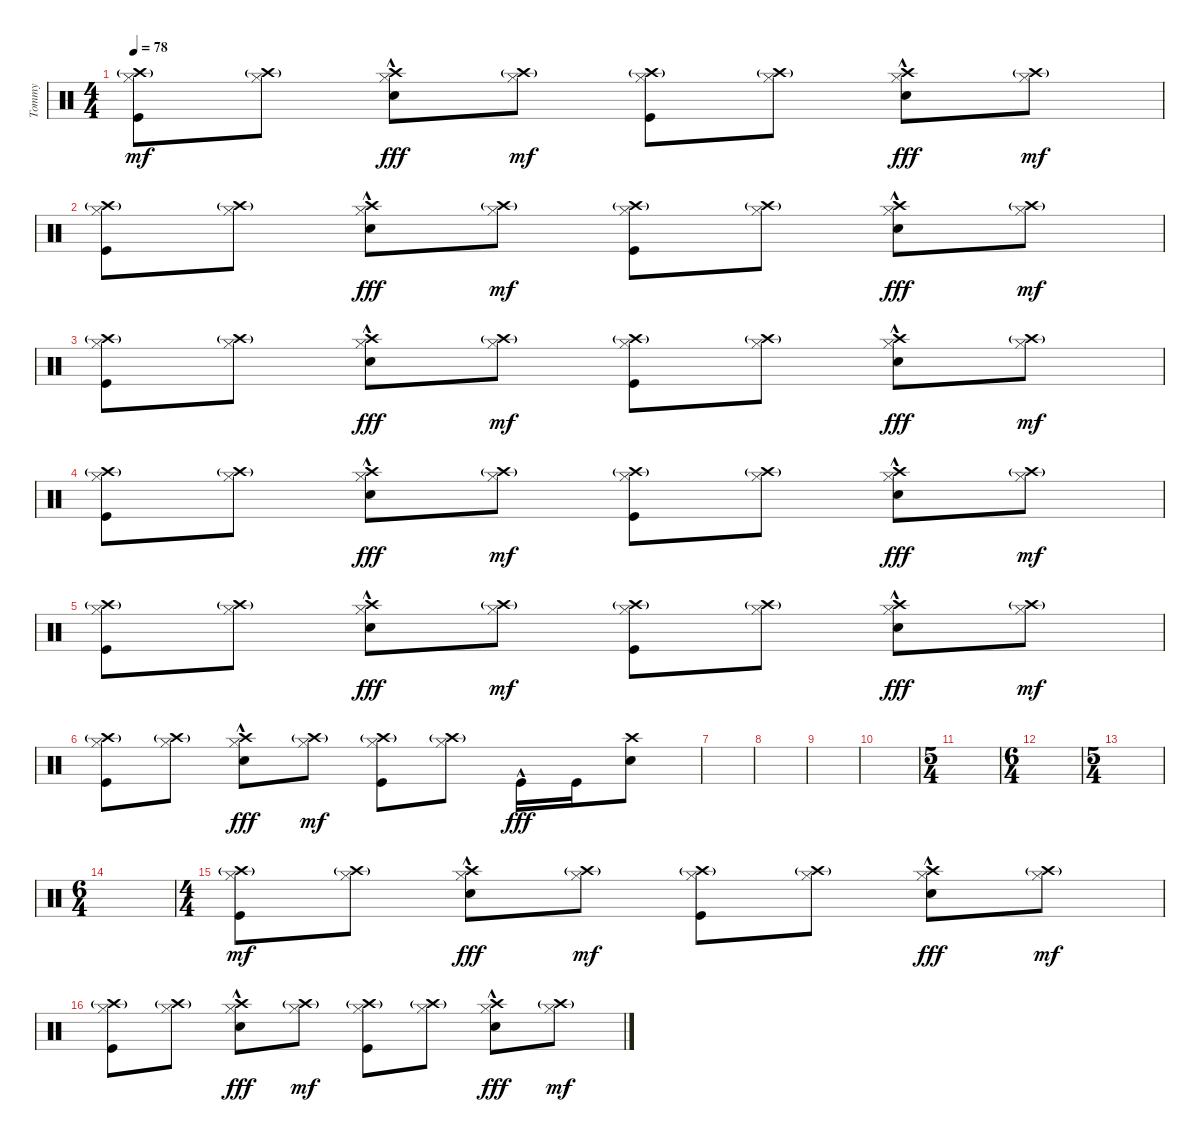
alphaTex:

\track ("Tommy" "Tommy") {instrument percussion}
\staff {score}
\articulation defaults
\ts (4 4)
\tempo 78
\clef neutral
\ks c
("Crash high (hit)"{g} "Hi-Hat (closed)" "Kick (hit)").8{dy mf} ("Crash high (hit)"{g} "Hi-Hat (closed)").8 ("Crash high (hit)" "Hi-Hat (closed)" "Electric Snare (hit)"{hac}).8{dy fff} ("Crash high (hit)"{g} "Hi-Hat (closed)").8{dy mf} ("Crash high (hit)"{g} "Hi-Hat (closed)" "Kick (hit)").8 ("Crash high (hit)"{g} "Hi-Hat (closed)").8 ("Crash high (hit)" "Hi-Hat (closed)" "Electric Snare (hit)"{hac}).8{dy fff} ("Crash high (hit)"{g} "Hi-Hat (closed)").8{dy mf} |
("Crash high (hit)"{g} "Hi-Hat (closed)" "Kick (hit)").8 ("Crash high (hit)"{g} "Hi-Hat (closed)").8 ("Crash high (hit)" "Hi-Hat (closed)" "Electric Snare (hit)"{hac}).8{dy fff} ("Crash high (hit)"{g} "Hi-Hat (closed)").8{dy mf} ("Crash high (hit)"{g} "Hi-Hat (closed)" "Kick (hit)").8 ("Crash high (hit)"{g} "Hi-Hat (closed)").8 ("Crash high (hit)" "Hi-Hat (closed)" "Electric Snare (hit)"{hac}).8{dy fff} ("Crash high (hit)"{g} "Hi-Hat (closed)").8{dy mf} |
("Crash high (hit)"{g} "Hi-Hat (closed)" "Kick (hit)").8 ("Crash high (hit)"{g} "Hi-Hat (closed)").8 ("Crash high (hit)" "Hi-Hat (closed)" "Electric Snare (hit)"{hac}).8{dy fff} ("Crash high (hit)"{g} "Hi-Hat (closed)").8{dy mf} ("Crash high (hit)"{g} "Hi-Hat (closed)" "Kick (hit)").8 ("Crash high (hit)"{g} "Hi-Hat (closed)").8 ("Crash high (hit)" "Hi-Hat (closed)" "Electric Snare (hit)"{hac}).8{dy fff} ("Crash high (hit)"{g} "Hi-Hat (closed)").8{dy mf} |
("Crash high (hit)"{g} "Hi-Hat (closed)" "Kick (hit)").8 ("Crash high (hit)"{g} "Hi-Hat (closed)").8 ("Crash high (hit)" "Hi-Hat (closed)" "Electric Snare (hit)"{hac}).8{dy fff} ("Crash high (hit)"{g} "Hi-Hat (closed)").8{dy mf} ("Crash high (hit)"{g} "Hi-Hat (closed)" "Kick (hit)").8 ("Crash high (hit)"{g} "Hi-Hat (closed)").8 ("Crash high (hit)" "Hi-Hat (closed)" "Electric Snare (hit)"{hac}).8{dy fff} ("Crash high (hit)"{g} "Hi-Hat (closed)").8{dy mf} |
("Crash high (hit)"{g} "Hi-Hat (closed)" "Kick (hit)").8 ("Crash high (hit)"{g} "Hi-Hat (closed)").8 ("Crash high (hit)" "Hi-Hat (closed)" "Electric Snare (hit)"{hac}).8{dy fff} ("Crash high (hit)"{g} "Hi-Hat (closed)").8{dy mf} ("Crash high (hit)"{g} "Hi-Hat (closed)" "Kick (hit)").8 ("Crash high (hit)"{g} "Hi-Hat (closed)").8 ("Crash high (hit)" "Hi-Hat (closed)" "Electric Snare (hit)"{hac}).8{dy fff} ("Crash high (hit)"{g} "Hi-Hat (closed)").8{dy mf} |
("Crash high (hit)"{g} "Hi-Hat (closed)" "Kick (hit)").8 ("Crash high (hit)"{g} "Hi-Hat (closed)").8 ("Crash high (hit)" "Hi-Hat (closed)" "Electric Snare (hit)"{hac}).8{dy fff} ("Crash high (hit)"{g} "Hi-Hat (closed)").8{dy mf} ("Crash high (hit)"{g} "Hi-Hat (closed)" "Kick (hit)").8 ("Crash high (hit)"{g} "Hi-Hat (closed)").8 "Kick (hit)"{hac}.16{dy fff} "Kick (hit)".16 ("Crash high (hit)" "Electric Snare (hit)").8 |
|
|
|
|
\ts (5 4)
|
\ts (6 4)
|
\ts (5 4)
|
\ts (6 4)
|
\ts (4 4)
("Crash high (hit)"{g} "Hi-Hat (closed)" "Kick (hit)").8{dy mf} ("Crash high (hit)"{g} "Hi-Hat (closed)").8 ("Crash high (hit)" "Hi-Hat (closed)" "Electric Snare (hit)"{hac}).8{dy fff} ("Crash high (hit)"{g} "Hi-Hat (closed)").8{dy mf} ("Crash high (hit)"{g} "Hi-Hat (closed)" "Kick (hit)").8 ("Crash high (hit)"{g} "Hi-Hat (closed)").8 ("Crash high (hit)" "Hi-Hat (closed)" "Electric Snare (hit)"{hac}).8{dy fff} ("Crash high (hit)"{g} "Hi-Hat (closed)").8{dy mf} |
("Crash high (hit)"{g} "Hi-Hat (closed)" "Kick (hit)").8 ("Crash high (hit)"{g} "Hi-Hat (closed)").8 ("Crash high (hit)" "Hi-Hat (closed)" "Electric Snare (hit)"{hac}).8{dy fff} ("Crash high (hit)"{g} "Hi-Hat (closed)").8{dy mf} ("Crash high (hit)"{g} "Hi-Hat (closed)" "Kick (hit)").8 ("Crash high (hit)"{g} "Hi-Hat (closed)").8 ("Crash high (hit)" "Hi-Hat (closed)" "Electric Snare (hit)"{hac}).8{dy fff} ("Crash high (hit)"{g} "Hi-Hat (closed)").8{dy mf}
